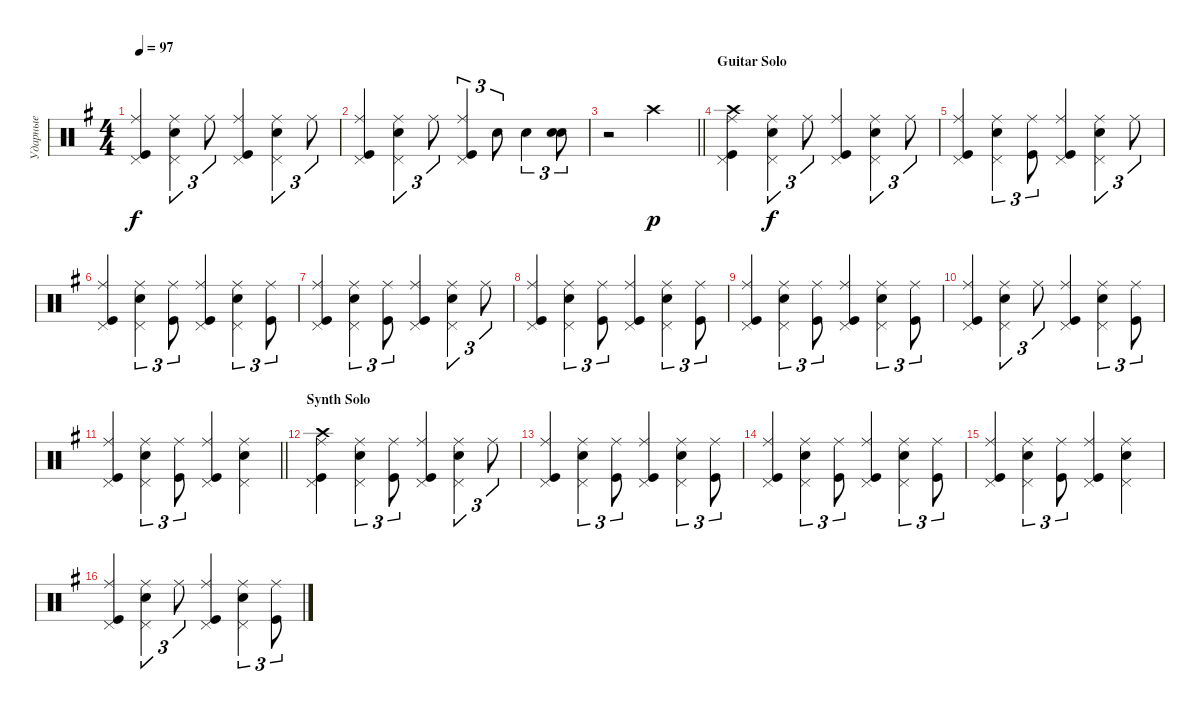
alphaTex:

\track ("Ударные" "Ударные") {instrument percussion}
\staff {score}
\articulation defaults
\ts (4 4)
\tempo 97
\clef neutral
\ks eminor
("Kick (hit)" "Ride (middle)" "Pedal Hi-Hat (hit)").4{dy f} ("Snare (hit) 2" "Ride (middle)" "Pedal Hi-Hat (hit)").4{tu (3 2)} "Ride (middle)".8{tu (3 2)} ("Kick (hit)" "Ride (middle)" "Pedal Hi-Hat (hit)").4 ("Snare (hit) 2" "Ride (middle)" "Pedal Hi-Hat (hit)").4{tu (3 2)} "Ride (middle)".8{tu (3 2)} |
("Kick (hit)" "Pedal Hi-Hat (hit)" "Ride (middle)").4 ("Snare (hit) 2" "Pedal Hi-Hat (hit)" "Ride (middle)").4{tu (3 2)} "Ride (middle)".8{tu (3 2)} ("Kick (hit)" "Pedal Hi-Hat (hit)" "Ride (middle)").4{tu (3 2)} "Snare (hit) 2".8{tu (3 2)} "Snare (hit) 2".4{tu (3 2)} ("Snare (hit) 2" "Snare (hit) 2").8{tu (3 2) bd 480} |
\barLineRight lightlight
r.2 "Crash high (hit)".2{dy p} |
\section ("" "Guitar Solo")
("Kick (hit)" "Ride (middle)" "Crash high (hit)" "Pedal Hi-Hat (hit)").4 ("Snare (hit) 2" "Pedal Hi-Hat (hit)" "Ride (middle)").4{tu (3 2) dy f} "Ride (middle)".8{tu (3 2)} ("Kick (hit)" "Pedal Hi-Hat (hit)" "Ride (middle)").4 ("Snare (hit) 2" "Ride (middle)" "Pedal Hi-Hat (hit)").4{tu (3 2)} "Ride (middle)".8{tu (3 2)} |
("Kick (hit)" "Ride (middle)" "Pedal Hi-Hat (hit)").4 ("Snare (hit) 2" "Ride (middle)" "Pedal Hi-Hat (hit)").4{tu (3 2)} ("Ride (middle)" "Kick (hit)").8{tu (3 2)} ("Kick (hit)" "Ride (middle)" "Pedal Hi-Hat (hit)").4 ("Snare (hit) 2" "Ride (middle)" "Pedal Hi-Hat (hit)").4{tu (3 2)} "Ride (middle)".8{tu (3 2)} |
("Kick (hit)" "Ride (middle)" "Pedal Hi-Hat (hit)").4 ("Snare (hit) 2" "Ride (middle)" "Pedal Hi-Hat (hit)").4{tu (3 2)} ("Ride (middle)" "Kick (hit)").8{tu (3 2)} ("Kick (hit)" "Ride (middle)" "Pedal Hi-Hat (hit)").4 ("Snare (hit) 2" "Ride (middle)" "Pedal Hi-Hat (hit)").4{tu (3 2)} ("Ride (middle)" "Kick (hit)").8{tu (3 2)} |
("Kick (hit)" "Ride (middle)" "Pedal Hi-Hat (hit)").4 ("Snare (hit) 2" "Ride (middle)" "Pedal Hi-Hat (hit)").4{tu (3 2)} ("Ride (middle)" "Kick (hit)").8{tu (3 2)} ("Kick (hit)" "Ride (middle)" "Pedal Hi-Hat (hit)").4 ("Snare (hit) 2" "Ride (middle)" "Pedal Hi-Hat (hit)").4{tu (3 2)} "Ride (middle)".8{tu (3 2)} |
("Kick (hit)" "Ride (middle)" "Pedal Hi-Hat (hit)").4 ("Snare (hit) 2" "Ride (middle)" "Pedal Hi-Hat (hit)").4{tu (3 2)} ("Ride (middle)" "Kick (hit)").8{tu (3 2)} ("Kick (hit)" "Ride (middle)" "Pedal Hi-Hat (hit)").4 ("Snare (hit) 2" "Ride (middle)" "Pedal Hi-Hat (hit)").4{tu (3 2)} ("Ride (middle)" "Kick (hit)").8{tu (3 2)} |
("Kick (hit)" "Ride (middle)" "Pedal Hi-Hat (hit)").4 ("Snare (hit) 2" "Ride (middle)" "Pedal Hi-Hat (hit)").4{tu (3 2)} ("Ride (middle)" "Kick (hit)").8{tu (3 2)} ("Kick (hit)" "Ride (middle)" "Pedal Hi-Hat (hit)").4 ("Snare (hit) 2" "Ride (middle)" "Pedal Hi-Hat (hit)").4{tu (3 2)} ("Ride (middle)" "Kick (hit)").8{tu (3 2)} |
("Kick (hit)" "Ride (middle)" "Pedal Hi-Hat (hit)").4 ("Snare (hit) 2" "Ride (middle)" "Pedal Hi-Hat (hit)").4{tu (3 2)} "Ride (middle)".8{tu (3 2)} ("Kick (hit)" "Ride (middle)" "Pedal Hi-Hat (hit)").4 ("Snare (hit) 2" "Ride (middle)" "Pedal Hi-Hat (hit)").4{tu (3 2)} ("Ride (middle)" "Kick (hit)").8{tu (3 2)} |
\barLineRight lightlight
("Kick (hit)" "Ride (middle)" "Pedal Hi-Hat (hit)").4 ("Snare (hit) 2" "Ride (middle)" "Pedal Hi-Hat (hit)").4{tu (3 2)} ("Ride (middle)" "Kick (hit)").8{tu (3 2)} ("Kick (hit)" "Ride (middle)" "Pedal Hi-Hat (hit)").4 ("Snare (hit) 2" "Ride (middle)" "Pedal Hi-Hat (hit)").4 |
\section ("" "Synth Solo")
("Kick (hit)" "Ride (middle)" "Pedal Hi-Hat (hit)" "Crash high (hit)").4 ("Snare (hit) 2" "Ride (middle)" "Pedal Hi-Hat (hit)").4{tu (3 2)} ("Ride (middle)" "Kick (hit)").8{tu (3 2)} ("Kick (hit)" "Ride (middle)" "Pedal Hi-Hat (hit)").4 ("Snare (hit) 2" "Ride (middle)" "Pedal Hi-Hat (hit)").4{tu (3 2)} "Ride (middle)".8{tu (3 2)} |
("Kick (hit)" "Ride (middle)" "Pedal Hi-Hat (hit)").4 ("Snare (hit) 2" "Ride (middle)" "Pedal Hi-Hat (hit)").4{tu (3 2)} ("Ride (middle)" "Kick (hit)").8{tu (3 2)} ("Kick (hit)" "Ride (middle)" "Pedal Hi-Hat (hit)").4 ("Snare (hit) 2" "Ride (middle)" "Pedal Hi-Hat (hit)").4{tu (3 2)} ("Ride (middle)" "Kick (hit)").8{tu (3 2)} |
("Kick (hit)" "Ride (middle)" "Pedal Hi-Hat (hit)").4 ("Snare (hit) 2" "Ride (middle)" "Pedal Hi-Hat (hit)").4{tu (3 2)} ("Ride (middle)" "Kick (hit)").8{tu (3 2)} ("Kick (hit)" "Ride (middle)" "Pedal Hi-Hat (hit)").4 ("Snare (hit) 2" "Ride (middle)" "Pedal Hi-Hat (hit)").4{tu (3 2)} ("Ride (middle)" "Kick (hit)").8{tu (3 2)} |
("Kick (hit)" "Ride (middle)" "Pedal Hi-Hat (hit)").4 ("Snare (hit) 2" "Ride (middle)" "Pedal Hi-Hat (hit)").4{tu (3 2)} ("Ride (middle)" "Kick (hit)").8{tu (3 2)} ("Kick (hit)" "Ride (middle)" "Pedal Hi-Hat (hit)").4 ("Snare (hit) 2" "Ride (middle)" "Pedal Hi-Hat (hit)").4 |
("Kick (hit)" "Ride (middle)" "Pedal Hi-Hat (hit)").4 ("Snare (hit) 2" "Ride (middle)" "Pedal Hi-Hat (hit)").4{tu (3 2)} "Ride (middle)".8{tu (3 2)} ("Kick (hit)" "Ride (middle)" "Pedal Hi-Hat (hit)").4 ("Snare (hit) 2" "Ride (middle)" "Pedal Hi-Hat (hit)").4{tu (3 2)} ("Ride (middle)" "Kick (hit)").8{tu (3 2)}
